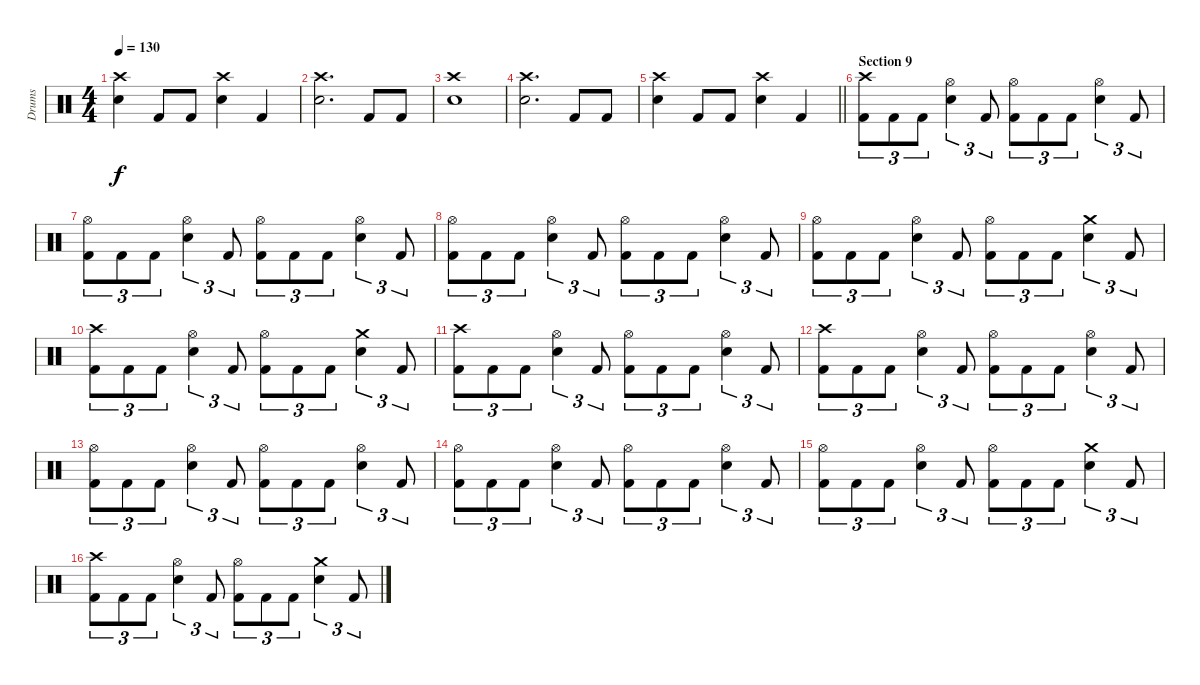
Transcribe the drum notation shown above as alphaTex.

\track ("Drums" "Drums") {instrument percussion}
\staff {score}
\articulation defaults
\ts (4 4)
\tempo 130
\clef neutral
\ks c
("Crash high (hit)" "Electric Snare (hit)").4{dy f} "Kick (hit) 2".8 "Kick (hit) 2".8 ("Crash high (hit)" "Electric Snare (hit)").4 "Kick (hit) 2".4 |
("Crash high (hit)" "Electric Snare (hit)").2{d} "Kick (hit) 2".8 "Kick (hit) 2".8 |
("Crash high (hit)" "Electric Snare (hit)").1 |
("Crash high (hit)" "Electric Snare (hit)").2{d} "Kick (hit) 2".8 "Kick (hit) 2".8 |
\barLineRight lightlight
("Crash high (hit)" "Electric Snare (hit)").4 "Kick (hit) 2".8 "Kick (hit) 2".8 ("Crash high (hit)" "Electric Snare (hit)").4 "Kick (hit) 2".4 |
\section ("" "Section 9")
("Crash high (hit)" "Kick (hit) 2").8{tu (3 2)} "Kick (hit) 2".8{tu (3 2)} "Kick (hit) 2".8{tu (3 2)} ("Hi-Hat (open)" "Electric Snare (hit)").4{tu (3 2)} "Kick (hit) 2".8{tu (3 2)} ("Hi-Hat (open)" "Kick (hit) 2").8{tu (3 2)} "Kick (hit) 2".8{tu (3 2)} "Kick (hit) 2".8{tu (3 2)} ("Hi-Hat (open)" "Electric Snare (hit)").4{tu (3 2)} "Kick (hit) 2".8{tu (3 2)} |
("Hi-Hat (open)" "Kick (hit) 2").8{tu (3 2)} "Kick (hit) 2".8{tu (3 2)} "Kick (hit) 2".8{tu (3 2)} ("Hi-Hat (open)" "Electric Snare (hit)").4{tu (3 2)} "Kick (hit) 2".8{tu (3 2)} ("Hi-Hat (open)" "Kick (hit) 2").8{tu (3 2)} "Kick (hit) 2".8{tu (3 2)} "Kick (hit) 2".8{tu (3 2)} ("Hi-Hat (open)" "Electric Snare (hit)").4{tu (3 2)} "Kick (hit) 2".8{tu (3 2)} |
("Hi-Hat (open)" "Kick (hit) 2").8{tu (3 2)} "Kick (hit) 2".8{tu (3 2)} "Kick (hit) 2".8{tu (3 2)} ("Hi-Hat (open)" "Electric Snare (hit)").4{tu (3 2)} "Kick (hit) 2".8{tu (3 2)} ("Hi-Hat (open)" "Kick (hit) 2").8{tu (3 2)} "Kick (hit) 2".8{tu (3 2)} "Kick (hit) 2".8{tu (3 2)} ("Hi-Hat (open)" "Electric Snare (hit)").4{tu (3 2)} "Kick (hit) 2".8{tu (3 2)} |
("Hi-Hat (open)" "Kick (hit) 2").8{tu (3 2)} "Kick (hit) 2".8{tu (3 2)} "Kick (hit) 2".8{tu (3 2)} ("Hi-Hat (open)" "Electric Snare (hit)").4{tu (3 2)} "Kick (hit) 2".8{tu (3 2)} ("Hi-Hat (open)" "Kick (hit) 2").8{tu (3 2)} "Kick (hit) 2".8{tu (3 2)} "Kick (hit) 2".8{tu (3 2)} ("Crash medium (hit)" "Electric Snare (hit)").4{tu (3 2)} "Kick (hit) 2".8{tu (3 2)} |
("Crash high (hit)" "Kick (hit) 2").8{tu (3 2)} "Kick (hit) 2".8{tu (3 2)} "Kick (hit) 2".8{tu (3 2)} ("Hi-Hat (open)" "Electric Snare (hit)").4{tu (3 2)} "Kick (hit) 2".8{tu (3 2)} ("Hi-Hat (open)" "Kick (hit) 2").8{tu (3 2)} "Kick (hit) 2".8{tu (3 2)} "Kick (hit) 2".8{tu (3 2)} ("Crash medium (hit)" "Electric Snare (hit)").4{tu (3 2)} "Kick (hit) 2".8{tu (3 2)} |
("Crash high (hit)" "Kick (hit) 2").8{tu (3 2)} "Kick (hit) 2".8{tu (3 2)} "Kick (hit) 2".8{tu (3 2)} ("Hi-Hat (open)" "Electric Snare (hit)").4{tu (3 2)} "Kick (hit) 2".8{tu (3 2)} ("Hi-Hat (open)" "Kick (hit) 2").8{tu (3 2)} "Kick (hit) 2".8{tu (3 2)} "Kick (hit) 2".8{tu (3 2)} ("Hi-Hat (open)" "Electric Snare (hit)").4{tu (3 2)} "Kick (hit) 2".8{tu (3 2)} |
("Crash high (hit)" "Kick (hit) 2").8{tu (3 2)} "Kick (hit) 2".8{tu (3 2)} "Kick (hit) 2".8{tu (3 2)} ("Hi-Hat (open)" "Electric Snare (hit)").4{tu (3 2)} "Kick (hit) 2".8{tu (3 2)} ("Hi-Hat (open)" "Kick (hit) 2").8{tu (3 2)} "Kick (hit) 2".8{tu (3 2)} "Kick (hit) 2".8{tu (3 2)} ("Hi-Hat (open)" "Electric Snare (hit)").4{tu (3 2)} "Kick (hit) 2".8{tu (3 2)} |
("Hi-Hat (open)" "Kick (hit) 2").8{tu (3 2)} "Kick (hit) 2".8{tu (3 2)} "Kick (hit) 2".8{tu (3 2)} ("Hi-Hat (open)" "Electric Snare (hit)").4{tu (3 2)} "Kick (hit) 2".8{tu (3 2)} ("Hi-Hat (open)" "Kick (hit) 2").8{tu (3 2)} "Kick (hit) 2".8{tu (3 2)} "Kick (hit) 2".8{tu (3 2)} ("Hi-Hat (open)" "Electric Snare (hit)").4{tu (3 2)} "Kick (hit) 2".8{tu (3 2)} |
("Hi-Hat (open)" "Kick (hit) 2").8{tu (3 2)} "Kick (hit) 2".8{tu (3 2)} "Kick (hit) 2".8{tu (3 2)} ("Hi-Hat (open)" "Electric Snare (hit)").4{tu (3 2)} "Kick (hit) 2".8{tu (3 2)} ("Hi-Hat (open)" "Kick (hit) 2").8{tu (3 2)} "Kick (hit) 2".8{tu (3 2)} "Kick (hit) 2".8{tu (3 2)} ("Hi-Hat (open)" "Electric Snare (hit)").4{tu (3 2)} "Kick (hit) 2".8{tu (3 2)} |
("Hi-Hat (open)" "Kick (hit) 2").8{tu (3 2)} "Kick (hit) 2".8{tu (3 2)} "Kick (hit) 2".8{tu (3 2)} ("Hi-Hat (open)" "Electric Snare (hit)").4{tu (3 2)} "Kick (hit) 2".8{tu (3 2)} ("Hi-Hat (open)" "Kick (hit) 2").8{tu (3 2)} "Kick (hit) 2".8{tu (3 2)} "Kick (hit) 2".8{tu (3 2)} ("Crash medium (hit)" "Electric Snare (hit)").4{tu (3 2)} "Kick (hit) 2".8{tu (3 2)} |
("Crash high (hit)" "Kick (hit) 2").8{tu (3 2)} "Kick (hit) 2".8{tu (3 2)} "Kick (hit) 2".8{tu (3 2)} ("Hi-Hat (open)" "Electric Snare (hit)").4{tu (3 2)} "Kick (hit) 2".8{tu (3 2)} ("Hi-Hat (open)" "Kick (hit) 2").8{tu (3 2)} "Kick (hit) 2".8{tu (3 2)} "Kick (hit) 2".8{tu (3 2)} ("Crash medium (hit)" "Electric Snare (hit)").4{tu (3 2)} "Kick (hit) 2".8{tu (3 2)}
